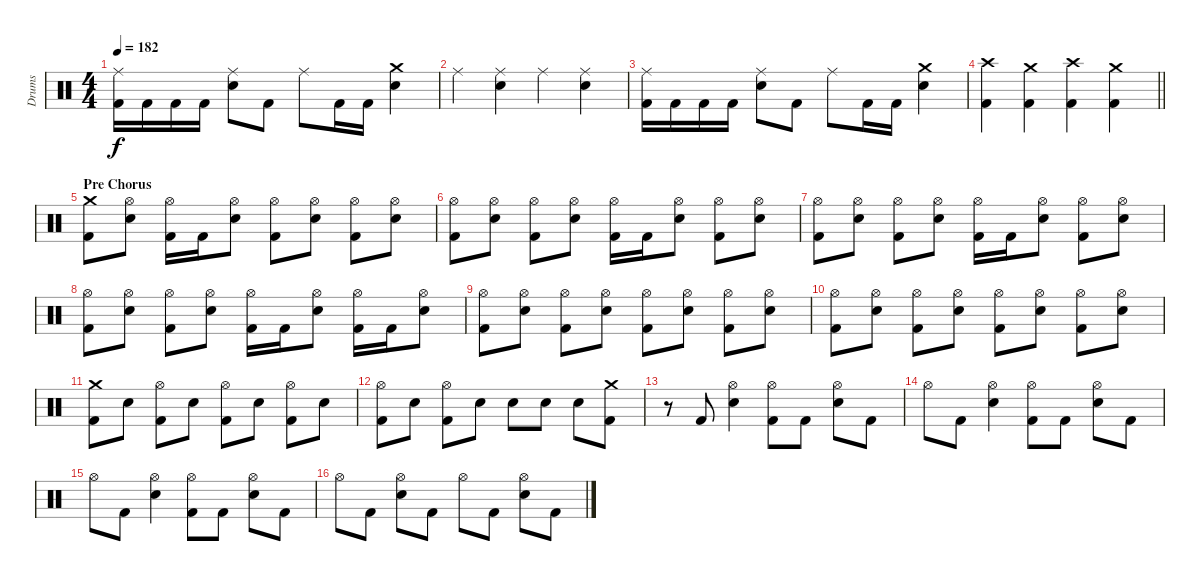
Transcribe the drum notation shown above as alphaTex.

\track ("Drums" "Drums") {instrument percussion}
\staff {score}
\articulation defaults
\ts (4 4)
\tempo 182
\clef neutral
\ks c
("Ride (middle)" "Kick (hit) 2").16{dy f} "Kick (hit) 2".16 "Kick (hit) 2".16 "Kick (hit) 2".16 ("Ride (middle)" "Snare (hit) 2").8 "Kick (hit) 2".8 "Ride (middle)".8 "Kick (hit) 2".16 "Kick (hit) 2".16 ("Crash medium (hit)" "Snare (hit) 2").4 |
"Ride (middle)".4 ("Ride (middle)" "Snare (hit) 2").4 "Ride (middle)".4 ("Ride (middle)" "Snare (hit) 2").4 |
("Ride (middle)" "Kick (hit) 2").16 "Kick (hit) 2".16 "Kick (hit) 2".16 "Kick (hit) 2".16 ("Ride (middle)" "Snare (hit) 2").8 "Kick (hit) 2".8 "Ride (middle)".8 "Kick (hit) 2".16 "Kick (hit) 2".16 ("Crash medium (hit)" "Snare (hit) 2").4 |
\barLineRight lightlight
("Crash high (hit)" "Kick (hit) 2").4 ("Crash medium (hit)" "Kick (hit) 2").4 ("Crash high (hit)" "Kick (hit) 2").4 ("Crash medium (hit)" "Kick (hit) 2").4 |
\section ("" "Pre Chorus")
("Crash medium (hit)" "Kick (hit) 2").8 ("Hi-Hat (open)" "Snare (hit) 2").8 ("Hi-Hat (open)" "Kick (hit) 2").16 "Kick (hit) 2".16 ("Hi-Hat (open)" "Snare (hit) 2").8 ("Hi-Hat (open)" "Kick (hit) 2").8 ("Hi-Hat (open)" "Snare (hit) 2").8 ("Hi-Hat (open)" "Kick (hit) 2").8 ("Hi-Hat (open)" "Snare (hit) 2").8 |
("Hi-Hat (open)" "Kick (hit) 2").8 ("Hi-Hat (open)" "Snare (hit) 2").8 ("Hi-Hat (open)" "Kick (hit) 2").8 ("Hi-Hat (open)" "Snare (hit) 2").8 ("Hi-Hat (open)" "Kick (hit) 2").16 "Kick (hit) 2".16 ("Hi-Hat (open)" "Snare (hit) 2").8 ("Hi-Hat (open)" "Kick (hit) 2").8 ("Hi-Hat (open)" "Snare (hit) 2").8 |
("Hi-Hat (open)" "Kick (hit) 2").8 ("Hi-Hat (open)" "Snare (hit) 2").8 ("Hi-Hat (open)" "Kick (hit) 2").8 ("Hi-Hat (open)" "Snare (hit) 2").8 ("Hi-Hat (open)" "Kick (hit) 2").16 "Kick (hit) 2".16 ("Hi-Hat (open)" "Snare (hit) 2").8 ("Hi-Hat (open)" "Kick (hit) 2").8 ("Hi-Hat (open)" "Snare (hit) 2").8 |
("Hi-Hat (open)" "Kick (hit) 2").8 ("Hi-Hat (open)" "Snare (hit) 2").8 ("Hi-Hat (open)" "Kick (hit) 2").8 ("Hi-Hat (open)" "Snare (hit) 2").8 ("Hi-Hat (open)" "Kick (hit) 2").16 "Kick (hit) 2".16 ("Hi-Hat (open)" "Snare (hit) 2").8 ("Hi-Hat (open)" "Kick (hit) 2").16 "Kick (hit) 2".16 ("Hi-Hat (open)" "Snare (hit) 2").8 |
("Hi-Hat (open)" "Kick (hit) 2").8 ("Hi-Hat (open)" "Snare (hit) 2").8 ("Hi-Hat (open)" "Kick (hit) 2").8 ("Hi-Hat (open)" "Snare (hit) 2").8 ("Hi-Hat (open)" "Kick (hit) 2").8 ("Hi-Hat (open)" "Snare (hit) 2").8 ("Hi-Hat (open)" "Kick (hit) 2").8 ("Hi-Hat (open)" "Snare (hit) 2").8 |
("Hi-Hat (open)" "Kick (hit) 2").8 ("Hi-Hat (open)" "Snare (hit) 2").8 ("Hi-Hat (open)" "Kick (hit) 2").8 ("Hi-Hat (open)" "Snare (hit) 2").8 ("Hi-Hat (open)" "Kick (hit) 2").8 ("Hi-Hat (open)" "Snare (hit) 2").8 ("Hi-Hat (open)" "Kick (hit) 2").8 ("Hi-Hat (open)" "Snare (hit) 2").8 |
("Crash medium (hit)" "Kick (hit) 2").8 "Snare (hit) 2".8 ("Hi-Hat (open)" "Kick (hit) 2").8 "Snare (hit) 2".8 ("Hi-Hat (open)" "Kick (hit) 2").8 "Snare (hit) 2".8 ("Hi-Hat (open)" "Kick (hit) 2").8 "Snare (hit) 2".8 |
("Hi-Hat (open)" "Kick (hit) 2").8 "Snare (hit) 2".8 ("Hi-Hat (open)" "Kick (hit) 2").8 "Snare (hit) 2".8 "Snare (hit) 2".8 "Snare (hit) 2".8 "Snare (hit) 2".8 ("Crash medium (hit)" "Kick (hit) 2").8 |
r.8 "Kick (hit) 2".8 ("Hi-Hat (open)" "Snare (hit) 2").4 ("Hi-Hat (open)" "Kick (hit) 2").8 "Kick (hit) 2".8 ("Hi-Hat (open)" "Snare (hit) 2").8 "Kick (hit) 2".8 |
"Hi-Hat (open)".8 "Kick (hit) 2".8 ("Hi-Hat (open)" "Snare (hit) 2").4 ("Hi-Hat (open)" "Kick (hit) 2").8 "Kick (hit) 2".8 ("Hi-Hat (open)" "Snare (hit) 2").8 "Kick (hit) 2".8 |
"Hi-Hat (open)".8 "Kick (hit) 2".8 ("Hi-Hat (open)" "Snare (hit) 2").4 ("Hi-Hat (open)" "Kick (hit) 2").8 "Kick (hit) 2".8 ("Hi-Hat (open)" "Snare (hit) 2").8 "Kick (hit) 2".8 |
"Hi-Hat (open)".8 "Kick (hit) 2".8 ("Hi-Hat (open)" "Snare (hit) 2").8 "Kick (hit) 2".8 "Hi-Hat (open)".8 "Kick (hit) 2".8 ("Hi-Hat (open)" "Snare (hit) 2").8 "Kick (hit) 2".8
